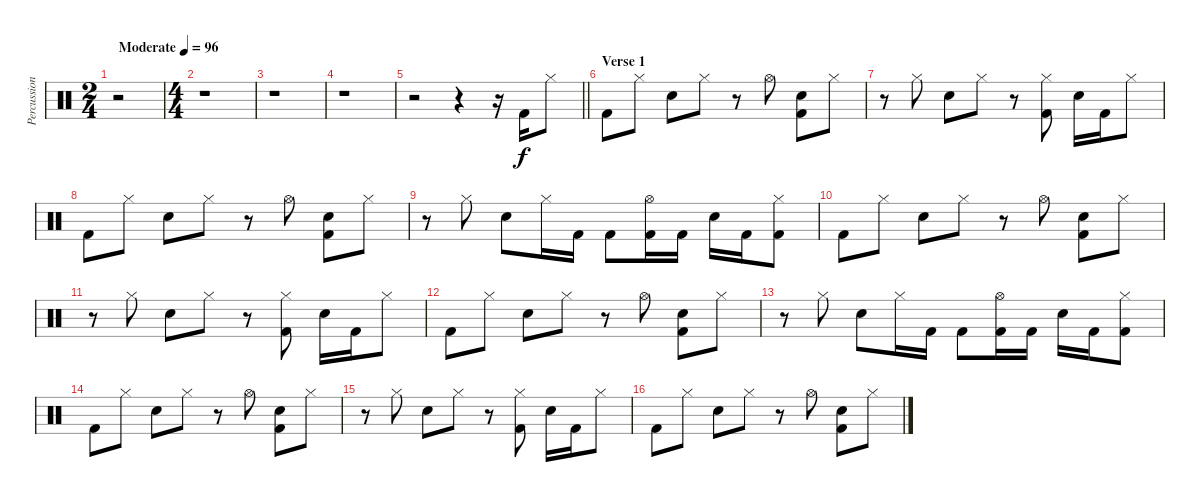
\track ("Percussion" "Percussion") {instrument percussion}
\staff {score}
\articulation defaults
\ts (2 4)
\tempo (96 "Moderate")
\clef neutral
\ks c
r.2{dy f} |
\ts (4 4)
r.1 |
r.1 |
r.1 |
\barLineRight lightlight
r.2 r.4 r.16 "Kick (hit) 2".16 "Hi-Hat (closed)".8 |
\section ("" "Verse 1")
"Kick (hit) 2".8 "Hi-Hat (closed)".8 "Snare (hit) 2".8 "Hi-Hat (closed)".8 r.8 "Hi-Hat (open)".8 ("Snare (hit) 2" "Kick (hit) 2").8 "Hi-Hat (closed)".8 |
r.8 "Hi-Hat (closed)".8 "Snare (hit) 2".8 "Hi-Hat (closed)".8 r.8 ("Hi-Hat (closed)" "Kick (hit) 2").8 "Snare (hit) 2".16 "Kick (hit) 2".16 "Hi-Hat (closed)".8 |
"Kick (hit) 2".8 "Hi-Hat (closed)".8 "Snare (hit) 2".8 "Hi-Hat (closed)".8 r.8 "Hi-Hat (open)".8 ("Snare (hit) 2" "Kick (hit) 2").8 "Hi-Hat (closed)".8 |
r.8 "Hi-Hat (closed)".8 "Snare (hit) 2".8 "Hi-Hat (closed)".16 "Kick (hit) 2".16 "Kick (hit) 2".8 ("Hi-Hat (open)" "Kick (hit) 2").16 "Kick (hit) 2".16 "Snare (hit) 2".16 "Kick (hit) 2".16 ("Hi-Hat (closed)" "Kick (hit) 2").8 |
"Kick (hit) 2".8 "Hi-Hat (closed)".8 "Snare (hit) 2".8 "Hi-Hat (closed)".8 r.8 "Hi-Hat (open)".8 ("Snare (hit) 2" "Kick (hit) 2").8 "Hi-Hat (closed)".8 |
r.8 "Hi-Hat (closed)".8 "Snare (hit) 2".8 "Hi-Hat (closed)".8 r.8 ("Hi-Hat (closed)" "Kick (hit) 2").8 "Snare (hit) 2".16 "Kick (hit) 2".16 "Hi-Hat (closed)".8 |
"Kick (hit) 2".8 "Hi-Hat (closed)".8 "Snare (hit) 2".8 "Hi-Hat (closed)".8 r.8 "Hi-Hat (open)".8 ("Snare (hit) 2" "Kick (hit) 2").8 "Hi-Hat (closed)".8 |
r.8 "Hi-Hat (closed)".8 "Snare (hit) 2".8 "Hi-Hat (closed)".16 "Kick (hit) 2".16 "Kick (hit) 2".8 ("Hi-Hat (open)" "Kick (hit) 2").16 "Kick (hit) 2".16 "Snare (hit) 2".16 "Kick (hit) 2".16 ("Hi-Hat (closed)" "Kick (hit) 2").8 |
"Kick (hit) 2".8 "Hi-Hat (closed)".8 "Snare (hit) 2".8 "Hi-Hat (closed)".8 r.8 "Hi-Hat (open)".8 ("Snare (hit) 2" "Kick (hit) 2").8 "Hi-Hat (closed)".8 |
r.8 "Hi-Hat (closed)".8 "Snare (hit) 2".8 "Hi-Hat (closed)".8 r.8 ("Hi-Hat (closed)" "Kick (hit) 2").8 "Snare (hit) 2".16 "Kick (hit) 2".16 "Hi-Hat (closed)".8 |
"Kick (hit) 2".8 "Hi-Hat (closed)".8 "Snare (hit) 2".8 "Hi-Hat (closed)".8 r.8 "Hi-Hat (open)".8 ("Snare (hit) 2" "Kick (hit) 2").8 "Hi-Hat (closed)".8
